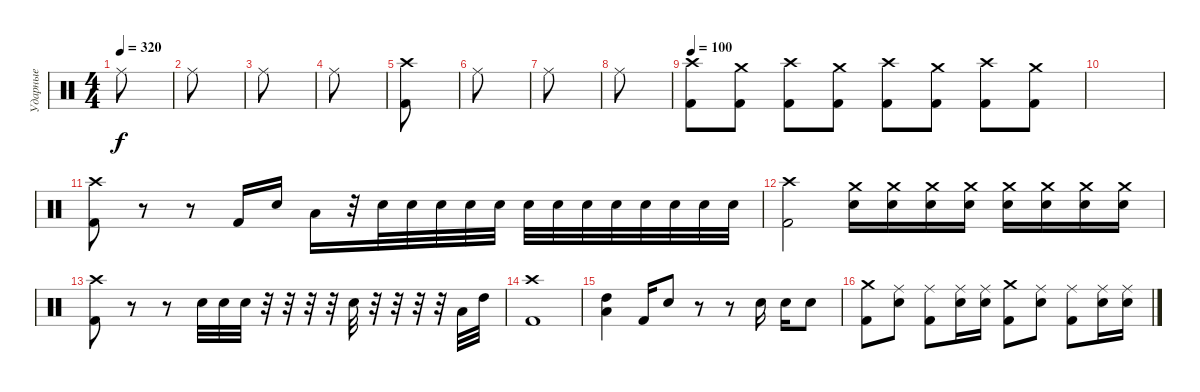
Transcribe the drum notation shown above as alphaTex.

\track ("Ударные" "Ударные") {instrument percussion}
\staff {score}
\articulation defaults
\ts (4 4)
\tempo 320
\clef neutral
\ks c "Ride (middle)".8{dy f}
|
"Ride (middle)".8 |
"Ride (middle)".8 |
"Ride (middle)".8 |
("Kick (hit) 2" "Crash high (hit)").8 |
"Ride (middle)".8 |
"Ride (middle)".8 |
"Ride (middle)".8 |
\tempo 100
("Kick (hit) 2" "Crash high (hit)").8 ("Kick (hit) 2" "Crash medium (hit)").8 ("Kick (hit) 2" "Crash high (hit)").8 ("Kick (hit) 2" "Crash medium (hit)").8 ("Kick (hit) 2" "Crash high (hit)").8 ("Kick (hit) 2" "Crash medium (hit)").8 ("Kick (hit) 2" "Crash high (hit)").8 ("Kick (hit) 2" "Crash medium (hit)").8 |
|
("Kick (hit) 2" "Crash high (hit)").8 r.8 r.8 "Kick (hit) 2".16 "Electric Snare (hit)".16 "Low Tom (hit)".16 r.32 "Electric Snare (hit)".32 "Electric Snare (hit)".32 "Electric Snare (hit)".32 "Electric Snare (hit)".32 "Electric Snare (hit)".32 "Electric Snare (hit)".32 "Electric Snare (hit)".32 "Electric Snare (hit)".32 "Electric Snare (hit)".32 "Electric Snare (hit)".32 "Electric Snare (hit)".32 "Electric Snare (hit)".32 "Electric Snare (hit)".32 |
("Kick (hit) 2" "Crash high (hit)").2 ("Electric Snare (hit)" "Crash medium (hit)").16 ("Electric Snare (hit)" "Crash medium (hit)").16 ("Electric Snare (hit)" "Crash medium (hit)").16 ("Electric Snare (hit)" "Crash medium (hit)").16 ("Electric Snare (hit)" "Crash medium (hit)").16 ("Electric Snare (hit)" "Crash medium (hit)").16 ("Electric Snare (hit)" "Crash medium (hit)").16 ("Electric Snare (hit)" "Crash medium (hit)").16 |
("Kick (hit) 2" "Crash high (hit)").8 r.8 r.8 "Electric Snare (hit)".32 "Electric Snare (hit)".32 "Electric Snare (hit)".32 r.32 r.32 r.32 r.32 "Electric Snare (hit)".32 r.32 r.32 r.32 r.32 "Low Tom (hit)".32 "High Tom (hit)".32 |
("Kick (hit) 2" "Crash high (hit)").1 |
("Low Tom (hit)" "High Tom (hit)").4 "Kick (hit) 2".16 "Electric Snare (hit)".8 r.8 r.8 "Electric Snare (hit)".16 "Electric Snare (hit)".16 "Electric Snare (hit)".8 |
("Kick (hit) 2" "Crash medium (hit)").8 ("Electric Snare (hit)" "Ride (middle)").8 ("Kick (hit) 2" "Ride (middle)").8 ("Electric Snare (hit)" "Ride (middle)").16 ("Electric Snare (hit)" "Ride (middle)").16 ("Kick (hit) 2" "Crash medium (hit)").8 ("Electric Snare (hit)" "Ride (middle)").8 ("Kick (hit) 2" "Ride (middle)").8 ("Electric Snare (hit)" "Ride (middle)").16 ("Electric Snare (hit)" "Ride (middle)").16
